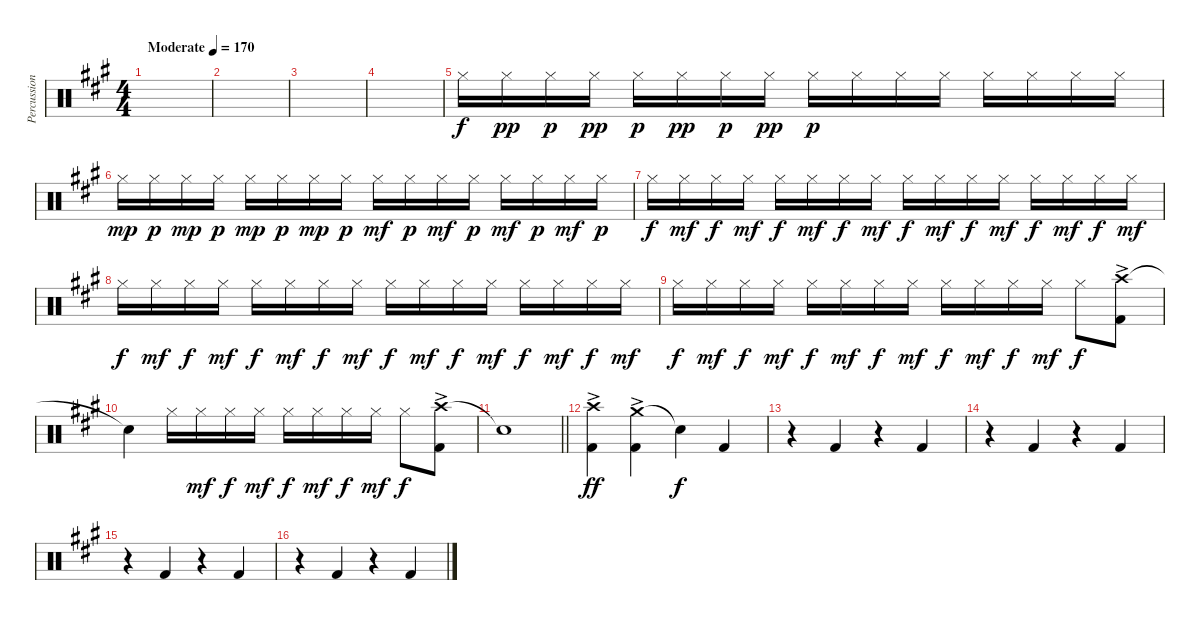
\track ("Percussion" "Percussion") {instrument percussion}
\staff {score}
\articulation defaults
\ts (4 4)
\tempo (170 "Moderate")
\clef neutral
\ks a
|
|
|
|
"Hi-Hat (closed)".16 "Hi-Hat (closed)".16{dy pp} "Hi-Hat (closed)".16{dy p} "Hi-Hat (closed)".16{dy pp} "Hi-Hat (closed)".16{dy p} "Hi-Hat (closed)".16{dy pp} "Hi-Hat (closed)".16{dy p} "Hi-Hat (closed)".16{dy pp} "Hi-Hat (closed)".16{dy p} "Hi-Hat (closed)".16 "Hi-Hat (closed)".16 "Hi-Hat (closed)".16 "Hi-Hat (closed)".16 "Hi-Hat (closed)".16 "Hi-Hat (closed)".16 "Hi-Hat (closed)".16 |
"Hi-Hat (closed)".16{dy mp} "Hi-Hat (closed)".16{dy p} "Hi-Hat (closed)".16{dy mp} "Hi-Hat (closed)".16{dy p} "Hi-Hat (closed)".16{dy mp} "Hi-Hat (closed)".16{dy p} "Hi-Hat (closed)".16{dy mp} "Hi-Hat (closed)".16{dy p} "Hi-Hat (closed)".16{dy mf} "Hi-Hat (closed)".16{dy p} "Hi-Hat (closed)".16{dy mf} "Hi-Hat (closed)".16{dy p} "Hi-Hat (closed)".16{dy mf} "Hi-Hat (closed)".16{dy p} "Hi-Hat (closed)".16{dy mf} "Hi-Hat (closed)".16{dy p} |
"Hi-Hat (closed)".16{dy f} "Hi-Hat (closed)".16{dy mf} "Hi-Hat (closed)".16{dy f} "Hi-Hat (closed)".16{dy mf} "Hi-Hat (closed)".16{dy f} "Hi-Hat (closed)".16{dy mf} "Hi-Hat (closed)".16{dy f} "Hi-Hat (closed)".16{dy mf} "Hi-Hat (closed)".16{dy f} "Hi-Hat (closed)".16{dy mf} "Hi-Hat (closed)".16{dy f} "Hi-Hat (closed)".16{dy mf} "Hi-Hat (closed)".16{dy f} "Hi-Hat (closed)".16{dy mf} "Hi-Hat (closed)".16{dy f} "Hi-Hat (closed)".16{dy mf} |
"Hi-Hat (closed)".16{dy f} "Hi-Hat (closed)".16{dy mf} "Hi-Hat (closed)".16{dy f} "Hi-Hat (closed)".16{dy mf} "Hi-Hat (closed)".16{dy f} "Hi-Hat (closed)".16{dy mf} "Hi-Hat (closed)".16{dy f} "Hi-Hat (closed)".16{dy mf} "Hi-Hat (closed)".16{dy f} "Hi-Hat (closed)".16{dy mf} "Hi-Hat (closed)".16{dy f} "Hi-Hat (closed)".16{dy mf} "Hi-Hat (closed)".16{dy f} "Hi-Hat (closed)".16{dy mf} "Hi-Hat (closed)".16{dy f} "Hi-Hat (closed)".16{dy mf} |
"Hi-Hat (closed)".16{dy f} "Hi-Hat (closed)".16{dy mf} "Hi-Hat (closed)".16{dy f} "Hi-Hat (closed)".16{dy mf} "Hi-Hat (closed)".16{dy f} "Hi-Hat (closed)".16{dy mf} "Hi-Hat (closed)".16{dy f} "Hi-Hat (closed)".16{dy mf} "Hi-Hat (closed)".16{dy f} "Hi-Hat (closed)".16{dy mf} "Hi-Hat (closed)".16{dy f} "Hi-Hat (closed)".16{dy mf} "Hi-Hat (closed)".8{dy f} ("Crash high (hit)"{ac} "Kick (hit) 2").8 |
"Snare (hit)"{t}.4 "Hi-Hat (closed)".16 "Hi-Hat (closed)".16{dy mf} "Hi-Hat (closed)".16{dy f} "Hi-Hat (closed)".16{dy mf} "Hi-Hat (closed)".16{dy f} "Hi-Hat (closed)".16{dy mf} "Hi-Hat (closed)".16{dy f} "Hi-Hat (closed)".16{dy mf} "Hi-Hat (closed)".8{dy f} ("Crash high (hit)"{ac} "Kick (hit) 2").8 |
\barLineRight lightlight "Snare (hit)"{t}.1
|
("Crash high (hit)"{ac} "Kick (hit) 2").4{dy ff} ("Crash medium (hit)"{ac} "Kick (hit) 2").4 "Snare (hit)"{t}.4{dy f} "Kick (hit) 2".4 |
r.4 "Kick (hit) 2".4 r.4 "Kick (hit) 2".4 |
r.4 "Kick (hit) 2".4 r.4 "Kick (hit) 2".4 |
r.4 "Kick (hit) 2".4 r.4 "Kick (hit) 2".4 |
r.4 "Kick (hit) 2".4 r.4 "Kick (hit) 2".4
